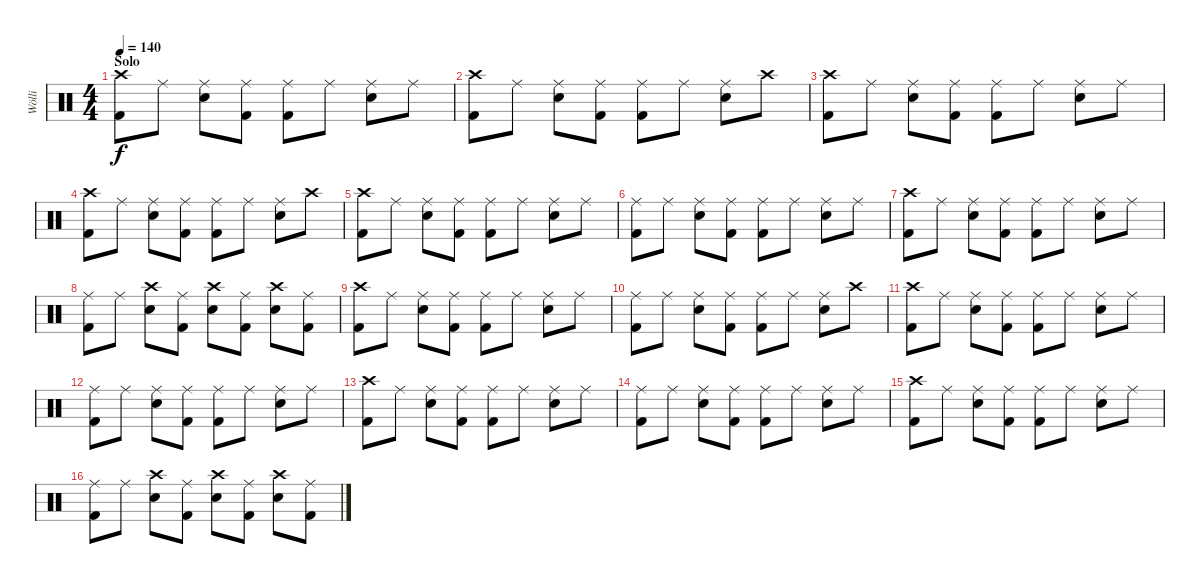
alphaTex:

\track ("Wölli" "Wölli") {instrument percussion}
\staff {score}
\articulation defaults
\ts (4 4)
\section ("" "Solo")
\tempo 140
\clef neutral
\ks c
("Crash high (hit)" "Kick (hit) 2").8{dy f} "Ride (middle)".8 ("Ride (middle)" "Snare (hit) 2").8 ("Ride (middle)" "Kick (hit) 2").8 ("Ride (middle)" "Kick (hit) 2").8 "Ride (middle)".8 ("Ride (middle)" "Snare (hit) 2").8 "Ride (middle)".8 |
("Crash high (hit)" "Kick (hit) 2").8 "Ride (middle)".8 ("Ride (middle)" "Snare (hit) 2").8 ("Ride (middle)" "Kick (hit) 2").8 ("Ride (middle)" "Kick (hit) 2").8 "Ride (middle)".8 ("Ride (middle)" "Snare (hit) 2").8 "Crash high (hit)".8 |
("Crash high (hit)" "Kick (hit) 2").8 "Ride (middle)".8 ("Ride (middle)" "Snare (hit) 2").8 ("Ride (middle)" "Kick (hit) 2").8 ("Ride (middle)" "Kick (hit) 2").8 "Ride (middle)".8 ("Ride (middle)" "Snare (hit) 2").8 "Ride (middle)".8 |
("Crash high (hit)" "Kick (hit) 2").8 "Ride (middle)".8 ("Ride (middle)" "Snare (hit) 2").8 ("Ride (middle)" "Kick (hit) 2").8 ("Ride (middle)" "Kick (hit) 2").8 "Ride (middle)".8 ("Ride (middle)" "Snare (hit) 2").8 "Crash high (hit)".8 |
("Crash high (hit)" "Kick (hit) 2").8 "Ride (middle)".8 ("Ride (middle)" "Snare (hit) 2").8 ("Ride (middle)" "Kick (hit) 2").8 ("Ride (middle)" "Kick (hit) 2").8 "Ride (middle)".8 ("Ride (middle)" "Snare (hit) 2").8 "Ride (middle)".8 |
("Ride (middle)" "Kick (hit) 2").8 "Ride (middle)".8 ("Ride (middle)" "Snare (hit) 2").8 ("Ride (middle)" "Kick (hit) 2").8 ("Ride (middle)" "Kick (hit) 2").8 "Ride (middle)".8 ("Ride (middle)" "Snare (hit) 2").8 "Ride (middle)".8 |
("Crash high (hit)" "Kick (hit) 2").8 "Ride (middle)".8 ("Ride (middle)" "Snare (hit) 2").8 ("Ride (middle)" "Kick (hit) 2").8 ("Ride (middle)" "Kick (hit) 2").8 "Ride (middle)".8 ("Ride (middle)" "Snare (hit) 2").8 "Ride (middle)".8 |
("Ride (middle)" "Kick (hit) 2").8 "Ride (middle)".8 ("Crash high (hit)" "Snare (hit) 2").8 ("Ride (middle)" "Kick (hit) 2").8 ("Crash high (hit)" "Snare (hit) 2").8 ("Ride (middle)" "Kick (hit) 2").8 ("Crash high (hit)" "Snare (hit) 2").8 ("Ride (middle)" "Kick (hit) 2").8 |
("Crash high (hit)" "Kick (hit) 2").8 "Ride (middle)".8 ("Ride (middle)" "Snare (hit) 2").8 ("Ride (middle)" "Kick (hit) 2").8 ("Ride (middle)" "Kick (hit) 2").8 "Ride (middle)".8 ("Ride (middle)" "Snare (hit) 2").8 "Ride (middle)".8 |
("Ride (middle)" "Kick (hit) 2").8 "Ride (middle)".8 ("Ride (middle)" "Snare (hit) 2").8 ("Ride (middle)" "Kick (hit) 2").8 ("Ride (middle)" "Kick (hit) 2").8 "Ride (middle)".8 ("Ride (middle)" "Snare (hit) 2").8 "Crash high (hit)".8 |
("Crash high (hit)" "Kick (hit) 2").8 "Ride (middle)".8 ("Ride (middle)" "Snare (hit) 2").8 ("Ride (middle)" "Kick (hit) 2").8 ("Ride (middle)" "Kick (hit) 2").8 "Ride (middle)".8 ("Ride (middle)" "Snare (hit) 2").8 "Ride (middle)".8 |
("Ride (middle)" "Kick (hit) 2").8 "Ride (middle)".8 ("Ride (middle)" "Snare (hit) 2").8 ("Ride (middle)" "Kick (hit) 2").8 ("Ride (middle)" "Kick (hit) 2").8 "Ride (middle)".8 ("Ride (middle)" "Snare (hit) 2").8 "Ride (middle)".8 |
("Crash high (hit)" "Kick (hit) 2").8 "Ride (middle)".8 ("Ride (middle)" "Snare (hit) 2").8 ("Ride (middle)" "Kick (hit) 2").8 ("Ride (middle)" "Kick (hit) 2").8 "Ride (middle)".8 ("Ride (middle)" "Snare (hit) 2").8 "Ride (middle)".8 |
("Ride (middle)" "Kick (hit) 2").8 "Ride (middle)".8 ("Ride (middle)" "Snare (hit) 2").8 ("Ride (middle)" "Kick (hit) 2").8 ("Ride (middle)" "Kick (hit) 2").8 "Ride (middle)".8 ("Ride (middle)" "Snare (hit) 2").8 "Ride (middle)".8 |
("Crash high (hit)" "Kick (hit) 2").8 "Ride (middle)".8 ("Ride (middle)" "Snare (hit) 2").8 ("Ride (middle)" "Kick (hit) 2").8 ("Ride (middle)" "Kick (hit) 2").8 "Ride (middle)".8 ("Ride (middle)" "Snare (hit) 2").8 "Ride (middle)".8 |
("Ride (middle)" "Kick (hit) 2").8 "Ride (middle)".8 ("Crash high (hit)" "Snare (hit) 2").8 ("Ride (middle)" "Kick (hit) 2").8 ("Crash high (hit)" "Snare (hit) 2").8 ("Ride (middle)" "Kick (hit) 2").8 ("Crash high (hit)" "Snare (hit) 2").8 ("Ride (middle)" "Kick (hit) 2").8
